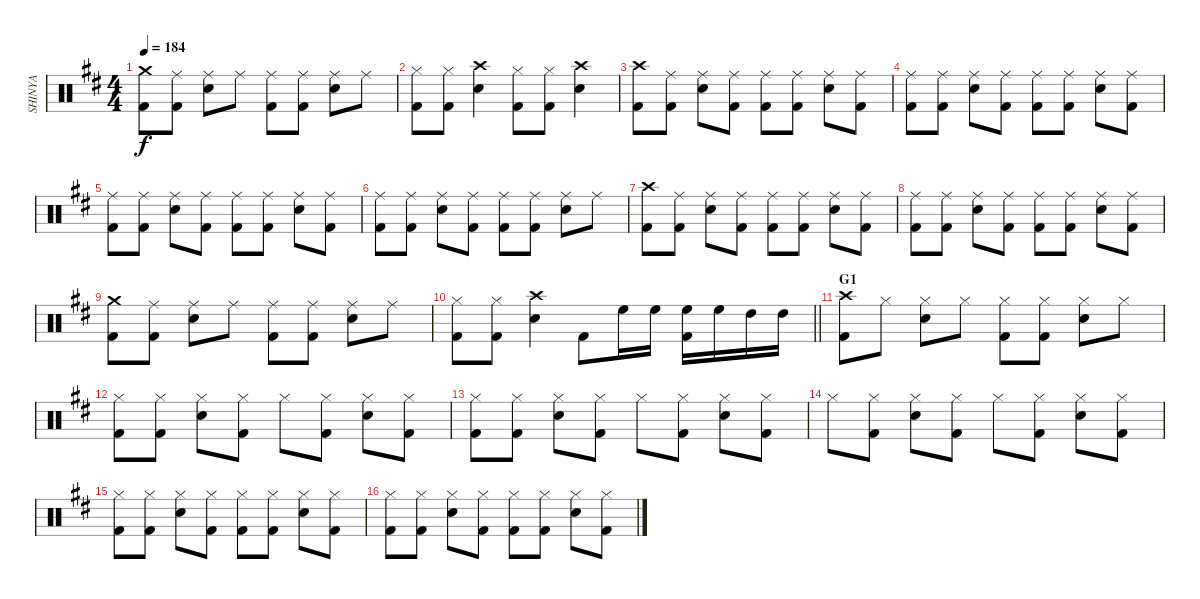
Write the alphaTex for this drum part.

\track ("SHINYA" "SHINYA") {instrument percussion}
\staff {score}
\articulation defaults
\ts (4 4)
\tempo 184
\clef neutral
\ks bminor
("Crash medium (hit)" "Kick (hit) 2").8{dy f} ("Ride (middle)" "Kick (hit) 2").8 ("Ride (middle)" "Snare (hit) 2").8 "Ride (middle)".8 ("Ride (middle)" "Kick (hit) 2").8 ("Ride (middle)" "Kick (hit) 2").8 ("Ride (middle)" "Snare (hit) 2").8 "Ride (middle)".8 |
("Hi-Hat (closed)" "Kick (hit) 2").8 ("Hi-Hat (closed)" "Kick (hit) 2").8 ("Crash high (hit)" "Snare (hit) 2").4 ("Hi-Hat (closed)" "Kick (hit) 2").8 ("Hi-Hat (closed)" "Kick (hit) 2").8 ("Crash high (hit)" "Snare (hit) 2").4 |
("Crash high (hit)" "Kick (hit) 2").8 ("Ride (middle)" "Kick (hit) 2").8 ("Ride (middle)" "Snare (hit) 2").8 ("Ride (middle)" "Kick (hit) 2").8 ("Ride (middle)" "Kick (hit) 2").8 ("Ride (middle)" "Kick (hit) 2").8 ("Ride (middle)" "Snare (hit) 2").8 ("Ride (middle)" "Kick (hit) 2").8 |
("Ride (middle)" "Kick (hit) 2").8 ("Ride (middle)" "Kick (hit) 2").8 ("Ride (middle)" "Snare (hit) 2").8 ("Ride (middle)" "Kick (hit) 2").8 ("Ride (middle)" "Kick (hit) 2").8 ("Ride (middle)" "Kick (hit) 2").8 ("Ride (middle)" "Snare (hit) 2").8 ("Ride (middle)" "Kick (hit) 2").8 |
("Ride (middle)" "Kick (hit) 2").8 ("Ride (middle)" "Kick (hit) 2").8 ("Ride (middle)" "Snare (hit) 2").8 ("Ride (middle)" "Kick (hit) 2").8 ("Ride (middle)" "Kick (hit) 2").8 ("Ride (middle)" "Kick (hit) 2").8 ("Ride (middle)" "Snare (hit) 2").8 ("Ride (middle)" "Kick (hit) 2").8 |
("Ride (middle)" "Kick (hit) 2").8 ("Ride (middle)" "Kick (hit) 2").8 ("Ride (middle)" "Snare (hit) 2").8 ("Ride (middle)" "Kick (hit) 2").8 ("Ride (middle)" "Kick (hit) 2").8 ("Ride (middle)" "Kick (hit) 2").8 ("Ride (middle)" "Snare (hit) 2").8 "Ride (middle)".8 |
("Crash high (hit)" "Kick (hit) 2").8 ("Ride (middle)" "Kick (hit) 2").8 ("Ride (middle)" "Snare (hit) 2").8 ("Ride (middle)" "Kick (hit) 2").8 ("Ride (middle)" "Kick (hit) 2").8 ("Ride (middle)" "Kick (hit) 2").8 ("Ride (middle)" "Snare (hit) 2").8 ("Ride (middle)" "Kick (hit) 2").8 |
("Ride (middle)" "Kick (hit) 2").8 ("Ride (middle)" "Kick (hit) 2").8 ("Ride (middle)" "Snare (hit) 2").8 ("Ride (middle)" "Kick (hit) 2").8 ("Ride (middle)" "Kick (hit) 2").8 ("Ride (middle)" "Kick (hit) 2").8 ("Ride (middle)" "Snare (hit) 2").8 ("Ride (middle)" "Kick (hit) 2").8 |
("Crash medium (hit)" "Kick (hit) 2").8 ("Ride (middle)" "Kick (hit) 2").8 ("Ride (middle)" "Snare (hit) 2").8 "Ride (middle)".8 ("Ride (middle)" "Kick (hit) 2").8 ("Ride (middle)" "Kick (hit) 2").8 ("Ride (middle)" "Snare (hit) 2").8 "Ride (middle)".8 |
\barLineRight lightlight
("Hi-Hat (closed)" "Kick (hit) 2").8 ("Hi-Hat (closed)" "Kick (hit) 2").8 ("Crash high (hit)" "Snare (hit) 2").4 "Kick (hit) 2".8 "High Floor Tom (hit)".16 "High Floor Tom (hit)".16 ("High Floor Tom (hit)" "Kick (hit) 2").16 "High Floor Tom (hit)".16 "High Tom (hit)".16 "High Tom (hit)".16 |
\section ("" "G1")
("Crash high (hit)" "Kick (hit) 2").8 "Hi-Hat (closed)".8 ("Hi-Hat (closed)" "Snare (hit) 2").8 "Hi-Hat (closed)".8 ("Hi-Hat (closed)" "Kick (hit) 2").8 ("Hi-Hat (closed)" "Kick (hit) 2").8 ("Hi-Hat (closed)" "Snare (hit) 2").8 "Hi-Hat (closed)".8 |
("Hi-Hat (closed)" "Kick (hit) 2").8 ("Hi-Hat (closed)" "Kick (hit) 2").8 ("Hi-Hat (closed)" "Snare (hit) 2").8 ("Hi-Hat (closed)" "Kick (hit) 2").8 "Hi-Hat (closed)".8 ("Hi-Hat (closed)" "Kick (hit) 2").8 ("Hi-Hat (closed)" "Snare (hit) 2").8 ("Hi-Hat (closed)" "Kick (hit) 2").8 |
("Hi-Hat (closed)" "Kick (hit) 2").8 ("Hi-Hat (closed)" "Kick (hit) 2").8 ("Hi-Hat (closed)" "Snare (hit) 2").8 ("Hi-Hat (closed)" "Kick (hit) 2").8 "Hi-Hat (closed)".8 ("Hi-Hat (closed)" "Kick (hit) 2").8 ("Hi-Hat (closed)" "Snare (hit) 2").8 ("Hi-Hat (closed)" "Kick (hit) 2").8 |
"Hi-Hat (closed)".8 ("Hi-Hat (closed)" "Kick (hit) 2").8 ("Hi-Hat (closed)" "Snare (hit) 2").8 ("Hi-Hat (closed)" "Kick (hit) 2").8 "Hi-Hat (closed)".8 ("Hi-Hat (closed)" "Kick (hit) 2").8 ("Hi-Hat (closed)" "Snare (hit) 2").8 ("Hi-Hat (closed)" "Kick (hit) 2").8 |
("Hi-Hat (closed)" "Kick (hit) 2").8 ("Hi-Hat (closed)" "Kick (hit) 2").8 ("Hi-Hat (closed)" "Snare (hit) 2").8 ("Hi-Hat (closed)" "Kick (hit) 2").8 ("Hi-Hat (closed)" "Kick (hit) 2").8 ("Hi-Hat (closed)" "Kick (hit) 2").8 ("Hi-Hat (closed)" "Snare (hit) 2").8 ("Hi-Hat (closed)" "Kick (hit) 2").8 |
("Hi-Hat (closed)" "Kick (hit) 2").8 ("Hi-Hat (closed)" "Kick (hit) 2").8 ("Hi-Hat (closed)" "Snare (hit) 2").8 ("Hi-Hat (closed)" "Kick (hit) 2").8 ("Hi-Hat (closed)" "Kick (hit) 2").8 ("Hi-Hat (closed)" "Kick (hit) 2").8 ("Hi-Hat (closed)" "Snare (hit) 2").8 ("Hi-Hat (closed)" "Kick (hit) 2").8
